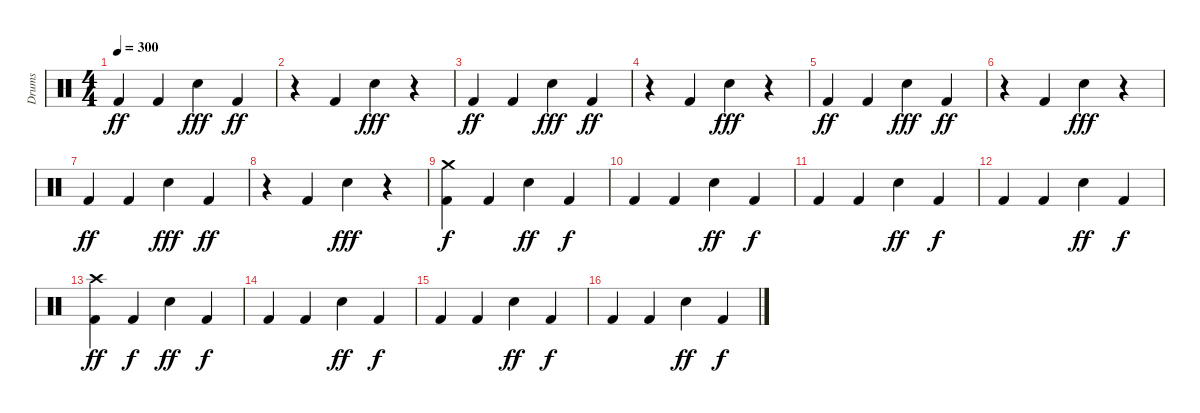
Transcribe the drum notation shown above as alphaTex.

\track ("Drums" "Drums") {instrument percussion}
\staff {score}
\articulation defaults
\ts (4 4)
\tempo 300
\clef neutral
\ks c "Kick (hit) 2".4{dy ff} "Kick (hit) 2".4 "Electric Snare (hit)".4{dy fff} "Kick (hit) 2".4{dy ff}
|
r.4 "Kick (hit) 2".4 "Electric Snare (hit)".4{dy fff} r.4 |
"Kick (hit) 2".4{dy ff} "Kick (hit) 2".4 "Electric Snare (hit)".4{dy fff} "Kick (hit) 2".4{dy ff} |
r.4 "Kick (hit) 2".4 "Electric Snare (hit)".4{dy fff} r.4 |
"Kick (hit) 2".4{dy ff} "Kick (hit) 2".4 "Electric Snare (hit)".4{dy fff} "Kick (hit) 2".4{dy ff} |
r.4 "Kick (hit) 2".4 "Electric Snare (hit)".4{dy fff} r.4 |
"Kick (hit) 2".4{dy ff} "Kick (hit) 2".4 "Electric Snare (hit)".4{dy fff} "Kick (hit) 2".4{dy ff} |
r.4 "Kick (hit) 2".4 "Electric Snare (hit)".4{dy fff} r.4 |
("Crash medium (hit)" "Kick (hit) 2").4{dy f} "Kick (hit) 2".4 "Electric Snare (hit)".4{dy ff} "Kick (hit) 2".4{dy f} |
"Kick (hit) 2".4 "Kick (hit) 2".4 "Electric Snare (hit)".4{dy ff} "Kick (hit) 2".4{dy f} |
"Kick (hit) 2".4 "Kick (hit) 2".4 "Electric Snare (hit)".4{dy ff} "Kick (hit) 2".4{dy f} |
"Kick (hit) 2".4 "Kick (hit) 2".4 "Electric Snare (hit)".4{dy ff} "Kick (hit) 2".4{dy f} |
("Crash high (hit)" "Kick (hit) 2").4{dy ff} "Kick (hit) 2".4{dy f} "Electric Snare (hit)".4{dy ff} "Kick (hit) 2".4{dy f} |
"Kick (hit) 2".4 "Kick (hit) 2".4 "Electric Snare (hit)".4{dy ff} "Kick (hit) 2".4{dy f} |
"Kick (hit) 2".4 "Kick (hit) 2".4 "Electric Snare (hit)".4{dy ff} "Kick (hit) 2".4{dy f} |
"Kick (hit) 2".4 "Kick (hit) 2".4 "Electric Snare (hit)".4{dy ff} "Kick (hit) 2".4{dy f}
